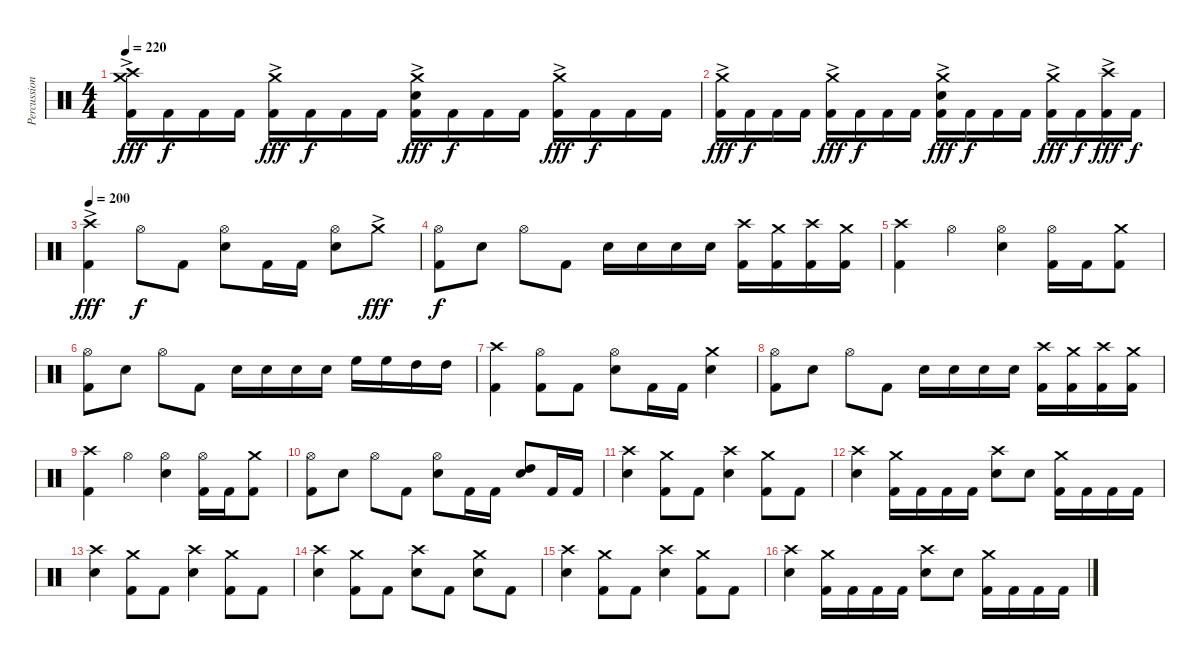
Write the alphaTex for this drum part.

\track ("Percussion" "Percussion") {instrument percussion}
\staff {score}
\articulation defaults
\ts (4 4)
\tempo 220
\clef neutral
\ks c
("Crash high (hit)" "Crash medium (hit)"{ac} "Kick (hit) 2").16{dy fff} "Kick (hit) 2".16{dy f} "Kick (hit) 2".16 "Kick (hit) 2".16 ("Crash medium (hit)"{ac} "Kick (hit) 2").16{dy fff} "Kick (hit) 2".16{dy f} "Kick (hit) 2".16 "Kick (hit) 2".16 ("Crash medium (hit)"{ac} "Electric Snare (hit)" "Kick (hit) 2").16{dy fff} "Kick (hit) 2".16{dy f} "Kick (hit) 2".16 "Kick (hit) 2".16 ("Crash medium (hit)"{ac} "Kick (hit) 2").16{dy fff} "Kick (hit) 2".16{dy f} "Kick (hit) 2".16 "Kick (hit) 2".16 |
("Crash medium (hit)"{ac} "Kick (hit) 2").16{dy fff} "Kick (hit) 2".16{dy f} "Kick (hit) 2".16 "Kick (hit) 2".16 ("Crash medium (hit)"{ac} "Kick (hit) 2").16{dy fff} "Kick (hit) 2".16{dy f} "Kick (hit) 2".16 "Kick (hit) 2".16 ("Crash medium (hit)"{ac} "Electric Snare (hit)" "Kick (hit) 2").16{dy fff} "Kick (hit) 2".16{dy f} "Kick (hit) 2".16 "Kick (hit) 2".16 ("Crash medium (hit)"{ac} "Kick (hit) 2").16{dy fff} "Kick (hit) 2".16{dy f} ("Crash high (hit)"{ac} "Kick (hit) 2").16{dy fff} "Kick (hit) 2".16{dy f} |
\tempo 200
("Crash high (hit)"{ac} "Kick (hit) 2").4{dy fff} "Hi-Hat (open)".8{dy f} "Kick (hit) 2".8 ("Hi-Hat (open)" "Electric Snare (hit)").8 "Kick (hit) 2".16 "Kick (hit) 2".16 ("Hi-Hat (open)" "Electric Snare (hit)").8 "Crash medium (hit)"{ac}.8{dy fff} |
("Hi-Hat (open)" "Kick (hit) 2").8{dy f} "Electric Snare (hit)".8 "Hi-Hat (open)".8 "Kick (hit) 2".8 "Electric Snare (hit)".16 "Electric Snare (hit)".16 "Electric Snare (hit)".16 "Electric Snare (hit)".16 ("Crash high (hit)" "Kick (hit) 2").16 ("Crash medium (hit)" "Kick (hit) 2").16 ("Crash high (hit)" "Kick (hit) 2").16 ("Crash medium (hit)" "Kick (hit) 2").16 |
("Crash high (hit)" "Kick (hit) 2").4 "Hi-Hat (open)".4 ("Hi-Hat (open)" "Electric Snare (hit)").4 ("Hi-Hat (open)" "Kick (hit) 2").16 "Kick (hit) 2".16 ("Crash medium (hit)" "Kick (hit) 2").8 |
("Hi-Hat (open)" "Kick (hit) 2").8 "Electric Snare (hit)".8 "Hi-Hat (open)".8 "Kick (hit) 2".8 "Electric Snare (hit)".16 "Electric Snare (hit)".16 "Electric Snare (hit)".16 "Electric Snare (hit)".16 "High Floor Tom (hit)".16 "High Floor Tom (hit)".16 "High Tom (hit)".16 "High Tom (hit)".16 |
("Crash high (hit)" "Kick (hit) 2").4 ("Hi-Hat (open)" "Kick (hit) 2").8 "Kick (hit) 2".8 ("Hi-Hat (open)" "Electric Snare (hit)").8 "Kick (hit) 2".16 "Kick (hit) 2".16 ("Crash medium (hit)" "Electric Snare (hit)").4 |
("Hi-Hat (open)" "Kick (hit) 2").8 "Electric Snare (hit)".8 "Hi-Hat (open)".8 "Kick (hit) 2".8 "Electric Snare (hit)".16 "Electric Snare (hit)".16 "Electric Snare (hit)".16 "Electric Snare (hit)".16 ("Crash high (hit)" "Kick (hit) 2").16 ("Crash medium (hit)" "Kick (hit) 2").16 ("Crash high (hit)" "Kick (hit) 2").16 ("Crash medium (hit)" "Kick (hit) 2").16 |
("Crash high (hit)" "Kick (hit) 2").4 "Hi-Hat (open)".4 ("Hi-Hat (open)" "Electric Snare (hit)").4 ("Hi-Hat (open)" "Kick (hit) 2").16 "Kick (hit) 2".16 ("Crash medium (hit)" "Kick (hit) 2").8 |
("Hi-Hat (open)" "Kick (hit) 2").8 "Electric Snare (hit)".8 "Hi-Hat (open)".8 "Kick (hit) 2".8 ("Hi-Hat (open)" "Electric Snare (hit)").8 "Kick (hit) 2".16 "Kick (hit) 2".16 ("High Tom (hit)" "Electric Snare (hit)").8 "Kick (hit) 2".16 "Kick (hit) 2".16 |
("Crash high (hit)" "Electric Snare (hit)").4 ("Crash medium (hit)" "Kick (hit) 2").8 "Kick (hit) 2".8 ("Crash high (hit)" "Electric Snare (hit)").4 ("Crash medium (hit)" "Kick (hit) 2").8 "Kick (hit) 2".8 |
("Crash high (hit)" "Electric Snare (hit)").4 ("Crash medium (hit)" "Kick (hit) 2").16 "Kick (hit) 2".16 "Kick (hit) 2".16 "Kick (hit) 2".16 ("Crash high (hit)" "Electric Snare (hit)").8 "Electric Snare (hit)".8 ("Crash medium (hit)" "Kick (hit) 2").16 "Kick (hit) 2".16 "Kick (hit) 2".16 "Kick (hit) 2".16 |
("Crash high (hit)" "Electric Snare (hit)").4 ("Crash medium (hit)" "Kick (hit) 2").8 "Kick (hit) 2".8 ("Crash high (hit)" "Electric Snare (hit)").4 ("Crash medium (hit)" "Kick (hit) 2").8 "Kick (hit) 2".8 |
("Crash high (hit)" "Electric Snare (hit)").4 ("Crash medium (hit)" "Kick (hit) 2").8 "Kick (hit) 2".8 ("Crash high (hit)" "Electric Snare (hit)").8 "Kick (hit) 2".8 ("Crash medium (hit)" "Electric Snare (hit)").8 "Kick (hit) 2".8 |
("Crash high (hit)" "Electric Snare (hit)").4 ("Crash medium (hit)" "Kick (hit) 2").8 "Kick (hit) 2".8 ("Crash high (hit)" "Electric Snare (hit)").4 ("Crash medium (hit)" "Kick (hit) 2").8 "Kick (hit) 2".8 |
("Crash high (hit)" "Electric Snare (hit)").4 ("Crash medium (hit)" "Kick (hit) 2").16 "Kick (hit) 2".16 "Kick (hit) 2".16 "Kick (hit) 2".16 ("Crash high (hit)" "Electric Snare (hit)").8 "Electric Snare (hit)".8 ("Crash medium (hit)" "Kick (hit) 2").16 "Kick (hit) 2".16 "Kick (hit) 2".16 "Kick (hit) 2".16
